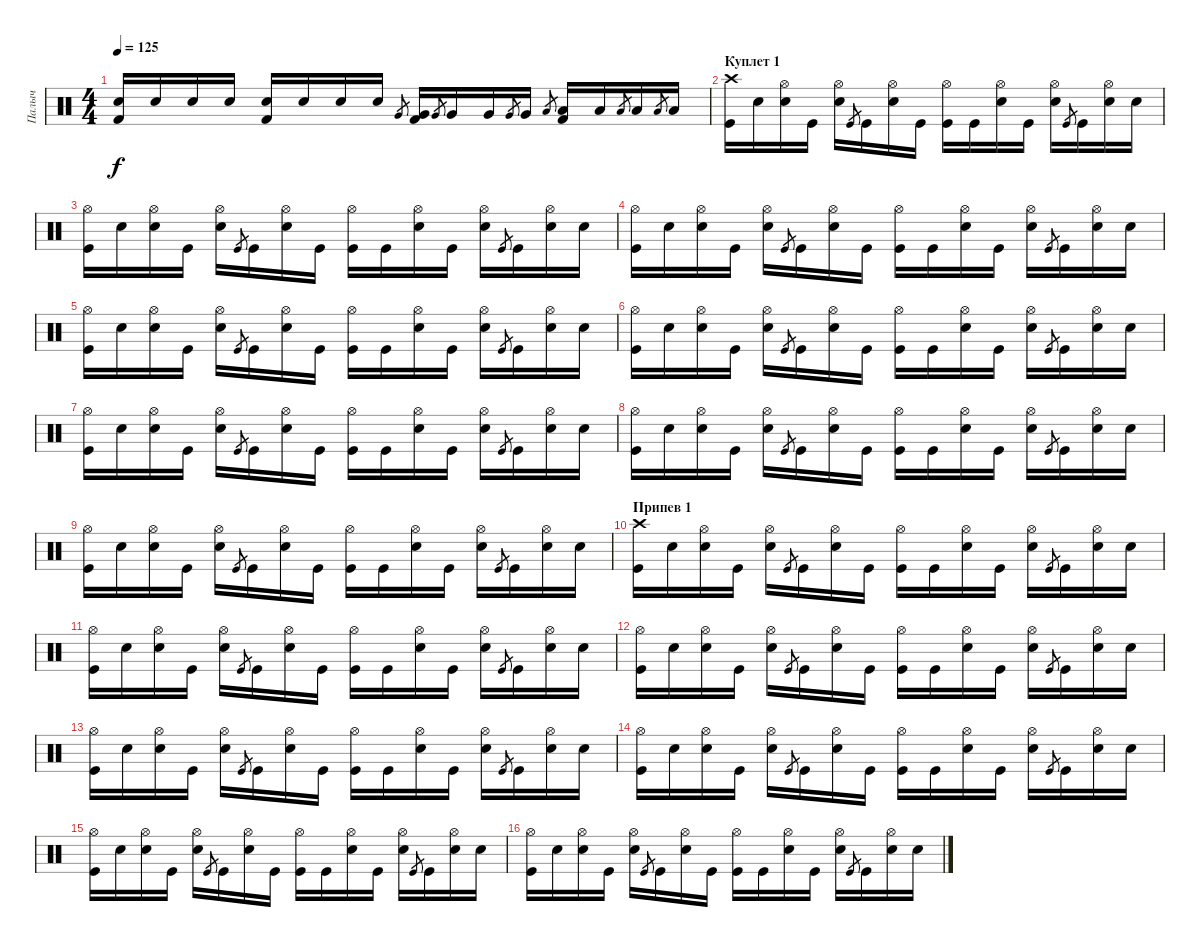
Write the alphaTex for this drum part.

\track ("Палыч" "Палыч") {instrument percussion}
\staff {score}
\articulation defaults
\ts (4 4)
\tempo 125
\clef neutral
\ks c
("Kick (hit) 2" "Electric Snare (hit)").16{dy f} "Electric Snare (hit)".16 "Electric Snare (hit)".16 "Electric Snare (hit)".16 ("Kick (hit) 2" "Electric Snare (hit)").16 "Electric Snare (hit)".16 "Electric Snare (hit)".16 "Electric Snare (hit)".16 "Very Low Tom (hit)".8{gr} ("Kick (hit) 2" "Very Low Tom (hit)").16 "Very Low Tom (hit)".8{gr} "Very Low Tom (hit)".16 "Very Low Tom (hit)".16 "Very Low Tom (hit)".8{gr} "Very Low Tom (hit)".16 "Low Floor Tom (hit)".8{gr} ("Kick (hit) 2" "Low Floor Tom (hit)").16 "Low Floor Tom (hit)".16 "Low Floor Tom (hit)".8{gr} "Low Floor Tom (hit)".16 "Low Floor Tom (hit)".8{gr} "Low Floor Tom (hit)".16 |
\section ("" "Куплет 1")
("Kick (hit)" "Crash high (hit)").16 "Snare (hit)"{x}.16 ("Snare (hit) 2" "Hi-Hat (open)").16 "Kick (hit)".16 ("Electric Snare (hit)"{x} "Hi-Hat (open)").16 "Kick (hit)".8{gr} "Kick (hit)".16 ("Snare (hit) 2" "Hi-Hat (open)").16 "Kick (hit)"{x}.16 ("Kick (hit)" "Hi-Hat (open)").16 "Kick (hit)"{x}.16 ("Snare (hit) 2" "Hi-Hat (open)").16 "Kick (hit)".16 ("Snare (hit)"{x} "Hi-Hat (open)").16 "Kick (hit)".8{gr} "Kick (hit)".16 ("Snare (hit) 2" "Hi-Hat (open)").16 "Snare (hit)"{x}.16 |
("Kick (hit)" "Hi-Hat (open)").16 "Snare (hit)"{x}.16 ("Snare (hit) 2" "Hi-Hat (open)").16 "Kick (hit)".16 ("Electric Snare (hit)"{x} "Hi-Hat (open)").16 "Kick (hit)".8{gr} "Kick (hit)".16 ("Snare (hit) 2" "Hi-Hat (open)").16 "Kick (hit)"{x}.16 ("Kick (hit)" "Hi-Hat (open)").16 "Kick (hit)"{x}.16 ("Snare (hit) 2" "Hi-Hat (open)").16 "Kick (hit)".16 ("Snare (hit)"{x} "Hi-Hat (open)").16 "Kick (hit)".8{gr} "Kick (hit)".16 ("Snare (hit) 2" "Hi-Hat (open)").16 "Snare (hit)"{x}.16 |
("Kick (hit)" "Hi-Hat (open)").16 "Snare (hit)"{x}.16 ("Snare (hit) 2" "Hi-Hat (open)").16 "Kick (hit)".16 ("Electric Snare (hit)"{x} "Hi-Hat (open)").16 "Kick (hit)".8{gr} "Kick (hit)".16 ("Snare (hit) 2" "Hi-Hat (open)").16 "Kick (hit)"{x}.16 ("Kick (hit)" "Hi-Hat (open)").16 "Kick (hit)"{x}.16 ("Snare (hit) 2" "Hi-Hat (open)").16 "Kick (hit)".16 ("Snare (hit)"{x} "Hi-Hat (open)").16 "Kick (hit)".8{gr} "Kick (hit)".16 ("Snare (hit) 2" "Hi-Hat (open)").16 "Snare (hit)"{x}.16 |
("Kick (hit)" "Hi-Hat (open)").16 "Snare (hit)"{x}.16 ("Snare (hit) 2" "Hi-Hat (open)").16 "Kick (hit)".16 ("Electric Snare (hit)"{x} "Hi-Hat (open)").16 "Kick (hit)".8{gr} "Kick (hit)".16 ("Snare (hit) 2" "Hi-Hat (open)").16 "Kick (hit)"{x}.16 ("Kick (hit)" "Hi-Hat (open)").16 "Kick (hit)"{x}.16 ("Snare (hit) 2" "Hi-Hat (open)").16 "Kick (hit)".16 ("Snare (hit)"{x} "Hi-Hat (open)").16 "Kick (hit)".8{gr} "Kick (hit)".16 ("Snare (hit) 2" "Hi-Hat (open)").16 "Snare (hit)"{x}.16 |
("Kick (hit)" "Hi-Hat (open)").16 "Snare (hit)"{x}.16 ("Snare (hit) 2" "Hi-Hat (open)").16 "Kick (hit)".16 ("Electric Snare (hit)"{x} "Hi-Hat (open)").16 "Kick (hit)".8{gr} "Kick (hit)".16 ("Snare (hit) 2" "Hi-Hat (open)").16 "Kick (hit)"{x}.16 ("Kick (hit)" "Hi-Hat (open)").16 "Kick (hit)"{x}.16 ("Snare (hit) 2" "Hi-Hat (open)").16 "Kick (hit)".16 ("Snare (hit)"{x} "Hi-Hat (open)").16 "Kick (hit)".8{gr} "Kick (hit)".16 ("Snare (hit) 2" "Hi-Hat (open)").16 "Snare (hit)"{x}.16 |
("Kick (hit)" "Hi-Hat (open)").16 "Snare (hit)"{x}.16 ("Snare (hit) 2" "Hi-Hat (open)").16 "Kick (hit)".16 ("Electric Snare (hit)"{x} "Hi-Hat (open)").16 "Kick (hit)".8{gr} "Kick (hit)".16 ("Snare (hit) 2" "Hi-Hat (open)").16 "Kick (hit)"{x}.16 ("Kick (hit)" "Hi-Hat (open)").16 "Kick (hit)"{x}.16 ("Snare (hit) 2" "Hi-Hat (open)").16 "Kick (hit)".16 ("Snare (hit)"{x} "Hi-Hat (open)").16 "Kick (hit)".8{gr} "Kick (hit)".16 ("Snare (hit) 2" "Hi-Hat (open)").16 "Snare (hit)"{x}.16 |
("Kick (hit)" "Hi-Hat (open)").16 "Snare (hit)"{x}.16 ("Snare (hit) 2" "Hi-Hat (open)").16 "Kick (hit)".16 ("Electric Snare (hit)"{x} "Hi-Hat (open)").16 "Kick (hit)".8{gr} "Kick (hit)".16 ("Snare (hit) 2" "Hi-Hat (open)").16 "Kick (hit)"{x}.16 ("Kick (hit)" "Hi-Hat (open)").16 "Kick (hit)"{x}.16 ("Snare (hit) 2" "Hi-Hat (open)").16 "Kick (hit)".16 ("Snare (hit)"{x} "Hi-Hat (open)").16 "Kick (hit)".8{gr} "Kick (hit)".16 ("Snare (hit) 2" "Hi-Hat (open)").16 "Snare (hit)"{x}.16 |
("Kick (hit)" "Hi-Hat (open)").16 "Snare (hit)"{x}.16 ("Snare (hit) 2" "Hi-Hat (open)").16 "Kick (hit)".16 ("Electric Snare (hit)"{x} "Hi-Hat (open)").16 "Kick (hit)".8{gr} "Kick (hit)".16 ("Snare (hit) 2" "Hi-Hat (open)").16 "Kick (hit)"{x}.16 ("Kick (hit)" "Hi-Hat (open)").16 "Kick (hit)"{x}.16 ("Snare (hit) 2" "Hi-Hat (open)").16 "Kick (hit)".16 ("Snare (hit)"{x} "Hi-Hat (open)").16 "Kick (hit)".8{gr} "Kick (hit)".16 ("Snare (hit) 2" "Hi-Hat (open)").16 "Snare (hit)"{x}.16 |
\section ("" "Припев 1")
("Kick (hit)" "Crash high (hit)").16 "Snare (hit)"{x}.16 ("Snare (hit) 2" "Hi-Hat (open)").16 "Kick (hit)".16 ("Electric Snare (hit)"{x} "Hi-Hat (open)").16 "Kick (hit)".8{gr} "Kick (hit)".16 ("Snare (hit) 2" "Hi-Hat (open)").16 "Kick (hit)"{x}.16 ("Kick (hit)" "Hi-Hat (open)").16 "Kick (hit)"{x}.16 ("Snare (hit) 2" "Hi-Hat (open)").16 "Kick (hit)".16 ("Snare (hit)"{x} "Hi-Hat (open)").16 "Kick (hit)".8{gr} "Kick (hit)".16 ("Snare (hit) 2" "Hi-Hat (open)").16 "Snare (hit)"{x}.16 |
("Kick (hit)" "Hi-Hat (open)").16 "Snare (hit)"{x}.16 ("Snare (hit) 2" "Hi-Hat (open)").16 "Kick (hit)".16 ("Electric Snare (hit)"{x} "Hi-Hat (open)").16 "Kick (hit)".8{gr} "Kick (hit)".16 ("Snare (hit) 2" "Hi-Hat (open)").16 "Kick (hit)"{x}.16 ("Kick (hit)" "Hi-Hat (open)").16 "Kick (hit)"{x}.16 ("Snare (hit) 2" "Hi-Hat (open)").16 "Kick (hit)".16 ("Snare (hit)"{x} "Hi-Hat (open)").16 "Kick (hit)".8{gr} "Kick (hit)".16 ("Snare (hit) 2" "Hi-Hat (open)").16 "Snare (hit)"{x}.16 |
("Kick (hit)" "Hi-Hat (open)").16 "Snare (hit)"{x}.16 ("Snare (hit) 2" "Hi-Hat (open)").16 "Kick (hit)".16 ("Electric Snare (hit)"{x} "Hi-Hat (open)").16 "Kick (hit)".8{gr} "Kick (hit)".16 ("Snare (hit) 2" "Hi-Hat (open)").16 "Kick (hit)"{x}.16 ("Kick (hit)" "Hi-Hat (open)").16 "Kick (hit)"{x}.16 ("Snare (hit) 2" "Hi-Hat (open)").16 "Kick (hit)".16 ("Snare (hit)"{x} "Hi-Hat (open)").16 "Kick (hit)".8{gr} "Kick (hit)".16 ("Snare (hit) 2" "Hi-Hat (open)").16 "Snare (hit)"{x}.16 |
("Kick (hit)" "Hi-Hat (open)").16 "Snare (hit)"{x}.16 ("Snare (hit) 2" "Hi-Hat (open)").16 "Kick (hit)".16 ("Electric Snare (hit)"{x} "Hi-Hat (open)").16 "Kick (hit)".8{gr} "Kick (hit)".16 ("Snare (hit) 2" "Hi-Hat (open)").16 "Kick (hit)"{x}.16 ("Kick (hit)" "Hi-Hat (open)").16 "Kick (hit)"{x}.16 ("Snare (hit) 2" "Hi-Hat (open)").16 "Kick (hit)".16 ("Snare (hit)"{x} "Hi-Hat (open)").16 "Kick (hit)".8{gr} "Kick (hit)".16 ("Snare (hit) 2" "Hi-Hat (open)").16 "Snare (hit)"{x}.16 |
("Kick (hit)" "Hi-Hat (open)").16 "Snare (hit)"{x}.16 ("Snare (hit) 2" "Hi-Hat (open)").16 "Kick (hit)".16 ("Electric Snare (hit)"{x} "Hi-Hat (open)").16 "Kick (hit)".8{gr} "Kick (hit)".16 ("Snare (hit) 2" "Hi-Hat (open)").16 "Kick (hit)"{x}.16 ("Kick (hit)" "Hi-Hat (open)").16 "Kick (hit)"{x}.16 ("Snare (hit) 2" "Hi-Hat (open)").16 "Kick (hit)".16 ("Snare (hit)"{x} "Hi-Hat (open)").16 "Kick (hit)".8{gr} "Kick (hit)".16 ("Snare (hit) 2" "Hi-Hat (open)").16 "Snare (hit)"{x}.16 |
("Kick (hit)" "Hi-Hat (open)").16 "Snare (hit)"{x}.16 ("Snare (hit) 2" "Hi-Hat (open)").16 "Kick (hit)".16 ("Electric Snare (hit)"{x} "Hi-Hat (open)").16 "Kick (hit)".8{gr} "Kick (hit)".16 ("Snare (hit) 2" "Hi-Hat (open)").16 "Kick (hit)"{x}.16 ("Kick (hit)" "Hi-Hat (open)").16 "Kick (hit)"{x}.16 ("Snare (hit) 2" "Hi-Hat (open)").16 "Kick (hit)".16 ("Snare (hit)"{x} "Hi-Hat (open)").16 "Kick (hit)".8{gr} "Kick (hit)".16 ("Snare (hit) 2" "Hi-Hat (open)").16 "Snare (hit)"{x}.16 |
("Kick (hit)" "Hi-Hat (open)").16 "Snare (hit)"{x}.16 ("Snare (hit) 2" "Hi-Hat (open)").16 "Kick (hit)".16 ("Electric Snare (hit)"{x} "Hi-Hat (open)").16 "Kick (hit)".8{gr} "Kick (hit)".16 ("Snare (hit) 2" "Hi-Hat (open)").16 "Kick (hit)"{x}.16 ("Kick (hit)" "Hi-Hat (open)").16 "Kick (hit)"{x}.16 ("Snare (hit) 2" "Hi-Hat (open)").16 "Kick (hit)".16 ("Snare (hit)"{x} "Hi-Hat (open)").16 "Kick (hit)".8{gr} "Kick (hit)".16 ("Snare (hit) 2" "Hi-Hat (open)").16 "Snare (hit)"{x}.16
